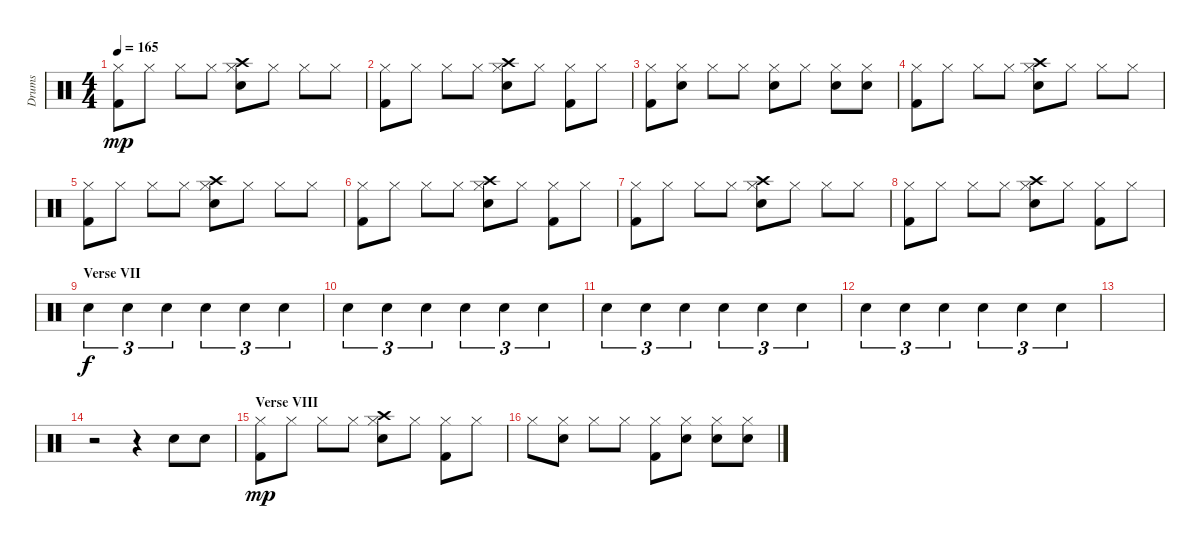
\track ("Drums" "Drums") {instrument percussion}
\staff {score}
\articulation defaults
\ts (4 4)
\tempo 165
\clef neutral
\ks c
("Hi-Hat (closed)" "Kick (hit) 2").8{dy mp} "Hi-Hat (closed)".8 "Hi-Hat (closed)".8 "Hi-Hat (closed)".8 ("Hi-Hat (closed)" "Snare (hit) 2" "Crash high (hit)").8 "Hi-Hat (closed)".8 "Hi-Hat (closed)".8 "Hi-Hat (closed)".8 |
("Hi-Hat (closed)" "Kick (hit) 2").8 "Hi-Hat (closed)".8 "Hi-Hat (closed)".8 "Hi-Hat (closed)".8 ("Hi-Hat (closed)" "Snare (hit) 2" "Crash high (hit)").8 "Hi-Hat (closed)".8 ("Hi-Hat (closed)" "Kick (hit) 2").8 "Hi-Hat (closed)".8 |
("Hi-Hat (closed)" "Kick (hit) 2").8 ("Hi-Hat (closed)" "Snare (hit) 2").8 "Hi-Hat (closed)".8 "Hi-Hat (closed)".8 ("Hi-Hat (closed)" "Snare (hit) 2").8 "Hi-Hat (closed)".8 ("Hi-Hat (closed)" "Electric Snare (hit)").8 ("Hi-Hat (closed)" "Electric Snare (hit)").8 |
("Hi-Hat (closed)" "Kick (hit) 2").8 "Hi-Hat (closed)".8 "Hi-Hat (closed)".8 "Hi-Hat (closed)".8 ("Hi-Hat (closed)" "Snare (hit) 2" "Crash high (hit)").8 "Hi-Hat (closed)".8 "Hi-Hat (closed)".8 "Hi-Hat (closed)".8 |
("Hi-Hat (closed)" "Kick (hit) 2").8 "Hi-Hat (closed)".8 "Hi-Hat (closed)".8 "Hi-Hat (closed)".8 ("Hi-Hat (closed)" "Snare (hit) 2" "Crash high (hit)").8 "Hi-Hat (closed)".8 "Hi-Hat (closed)".8 "Hi-Hat (closed)".8 |
("Hi-Hat (closed)" "Kick (hit) 2").8 "Hi-Hat (closed)".8 "Hi-Hat (closed)".8 "Hi-Hat (closed)".8 ("Hi-Hat (closed)" "Snare (hit) 2" "Crash high (hit)").8 "Hi-Hat (closed)".8 ("Hi-Hat (closed)" "Kick (hit) 2").8 "Hi-Hat (closed)".8 |
("Hi-Hat (closed)" "Kick (hit) 2").8 "Hi-Hat (closed)".8 "Hi-Hat (closed)".8 "Hi-Hat (closed)".8 ("Hi-Hat (closed)" "Snare (hit) 2" "Crash high (hit)").8 "Hi-Hat (closed)".8 "Hi-Hat (closed)".8 "Hi-Hat (closed)".8 |
("Hi-Hat (closed)" "Kick (hit) 2").8 "Hi-Hat (closed)".8 "Hi-Hat (closed)".8 "Hi-Hat (closed)".8 ("Hi-Hat (closed)" "Snare (hit) 2" "Crash high (hit)").8 "Hi-Hat (closed)".8 ("Hi-Hat (closed)" "Kick (hit) 2").8 "Hi-Hat (closed)".8 |
\section ("" "Verse VII")
"Snare (hit) 2".4{tu (3 2) dy f} "Snare (hit) 2".4{tu (3 2)} "Snare (hit) 2".4{tu (3 2)} "Snare (hit) 2".4{tu (3 2)} "Snare (hit) 2".4{tu (3 2)} "Snare (hit) 2".4{tu (3 2)} |
"Snare (hit) 2".4{tu (3 2)} "Snare (hit) 2".4{tu (3 2)} "Snare (hit) 2".4{tu (3 2)} "Snare (hit) 2".4{tu (3 2)} "Snare (hit) 2".4{tu (3 2)} "Snare (hit) 2".4{tu (3 2)} |
"Snare (hit) 2".4{tu (3 2)} "Snare (hit) 2".4{tu (3 2)} "Snare (hit) 2".4{tu (3 2)} "Snare (hit) 2".4{tu (3 2)} "Snare (hit) 2".4{tu (3 2)} "Snare (hit) 2".4{tu (3 2)} |
"Snare (hit) 2".4{tu (3 2)} "Snare (hit) 2".4{tu (3 2)} "Snare (hit) 2".4{tu (3 2)} "Snare (hit) 2".4{tu (3 2)} "Snare (hit) 2".4{tu (3 2)} "Snare (hit) 2".4{tu (3 2)} |
|
r.2 r.4 "Electric Snare (hit)".8 "Electric Snare (hit)".8 |
\section ("" "Verse VIII")
("Hi-Hat (closed)" "Kick (hit) 2").8{dy mp} "Hi-Hat (closed)".8 "Hi-Hat (closed)".8 "Hi-Hat (closed)".8 ("Hi-Hat (closed)" "Snare (hit) 2" "Crash high (hit)").8 "Hi-Hat (closed)".8 ("Hi-Hat (closed)" "Kick (hit) 2").8 "Hi-Hat (closed)".8 |
"Hi-Hat (closed)".8 ("Hi-Hat (closed)" "Snare (hit) 2").8 "Hi-Hat (closed)".8 "Hi-Hat (closed)".8 ("Hi-Hat (closed)" "Kick (hit) 2").8 ("Hi-Hat (closed)" "Electric Snare (hit)").8 ("Hi-Hat (closed)" "Electric Snare (hit)").8 ("Hi-Hat (closed)" "Snare (hit) 2").8
